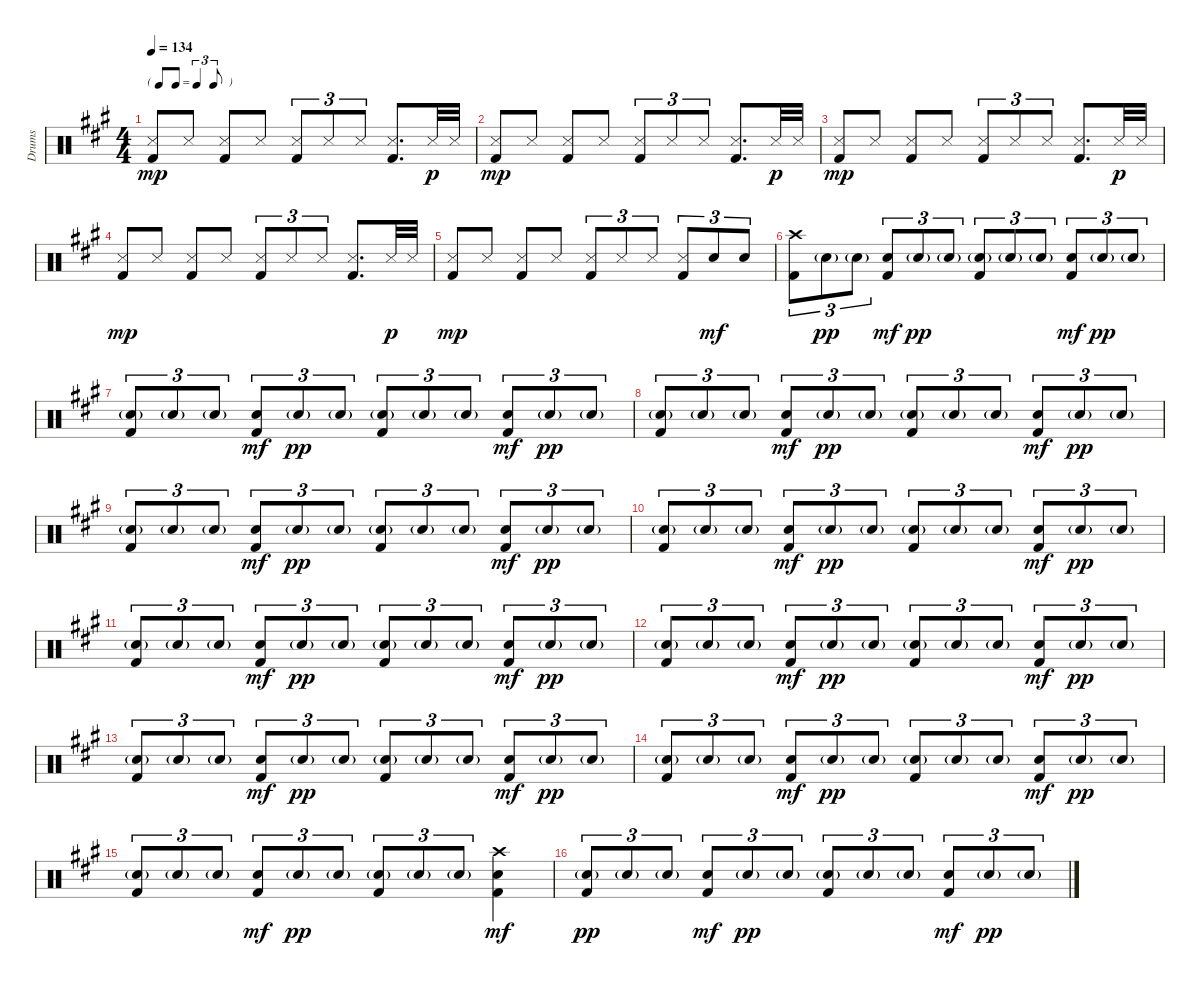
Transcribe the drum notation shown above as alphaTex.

\track ("Drums" "Drums") {instrument percussion}
\staff {score}
\articulation defaults
\ts (4 4)
\tf triplet8th
\tempo 134
\clef neutral
\ks f#minor
("Snare (side stick) 3" "Kick (hit) 2").8{dy mp} "Snare (side stick) 3".8 ("Snare (side stick) 3" "Kick (hit) 2").8 "Snare (side stick) 3".8 ("Snare (side stick) 3" "Kick (hit) 2").8{tu (3 2)} "Snare (side stick) 3".8{tu (3 2)} "Snare (side stick) 3".8{tu (3 2)} ("Snare (side stick) 3" "Kick (hit) 2").8{d} "Snare (side stick) 3".32{dy p} "Snare (side stick) 3".32 |
("Snare (side stick) 3" "Kick (hit) 2").8{dy mp} "Snare (side stick) 3".8 ("Snare (side stick) 3" "Kick (hit) 2").8 "Snare (side stick) 3".8 ("Snare (side stick) 3" "Kick (hit) 2").8{tu (3 2)} "Snare (side stick) 3".8{tu (3 2)} "Snare (side stick) 3".8{tu (3 2)} ("Snare (side stick) 3" "Kick (hit) 2").8{d} "Snare (side stick) 3".32{dy p} "Snare (side stick) 3".32 |
("Snare (side stick) 3" "Kick (hit) 2").8{dy mp} "Snare (side stick) 3".8 ("Snare (side stick) 3" "Kick (hit) 2").8 "Snare (side stick) 3".8 ("Snare (side stick) 3" "Kick (hit) 2").8{tu (3 2)} "Snare (side stick) 3".8{tu (3 2)} "Snare (side stick) 3".8{tu (3 2)} ("Snare (side stick) 3" "Kick (hit) 2").8{d} "Snare (side stick) 3".32{dy p} "Snare (side stick) 3".32 |
("Snare (side stick) 3" "Kick (hit) 2").8{dy mp} "Snare (side stick) 3".8 ("Snare (side stick) 3" "Kick (hit) 2").8 "Snare (side stick) 3".8 ("Snare (side stick) 3" "Kick (hit) 2").8{tu (3 2)} "Snare (side stick) 3".8{tu (3 2)} "Snare (side stick) 3".8{tu (3 2)} ("Snare (side stick) 3" "Kick (hit) 2").8{d} "Snare (side stick) 3".32{dy p} "Snare (side stick) 3".32 |
("Snare (side stick) 3" "Kick (hit) 2").8{dy mp} "Snare (side stick) 3".8 ("Snare (side stick) 3" "Kick (hit) 2").8 "Snare (side stick) 3".8 ("Snare (side stick) 3" "Kick (hit) 2").8{tu (3 2)} "Snare (side stick) 3".8{tu (3 2)} "Snare (side stick) 3".8{tu (3 2)} ("Snare (side stick) 3" "Kick (hit) 2").8{tu (3 2)} "Electric Snare (hit)".8{tu (3 2) dy mf} "Electric Snare (hit)".8{tu (3 2)} |
("Crash high (hit)" "Kick (hit) 2").8{tu (3 2)} "Snare (hit) 2"{g}.8{tu (3 2) dy pp} "Snare (hit) 2"{g}.8{tu (3 2)} ("Electric Snare (hit)" "Kick (hit) 2").8{tu (3 2) dy mf} "Snare (hit) 2"{g}.8{tu (3 2) dy pp} "Snare (hit) 2"{g}.8{tu (3 2)} ("Snare (hit) 2"{g} "Kick (hit) 2").8{tu (3 2)} "Snare (hit) 2"{g}.8{tu (3 2)} "Snare (hit) 2"{g}.8{tu (3 2)} ("Electric Snare (hit)" "Kick (hit) 2").8{tu (3 2) dy mf} "Snare (hit) 2"{g}.8{tu (3 2) dy pp} "Snare (hit) 2"{g}.8{tu (3 2)} |
("Snare (hit) 2"{g} "Kick (hit) 2").8{tu (3 2)} "Snare (hit) 2"{g}.8{tu (3 2)} "Snare (hit) 2"{g}.8{tu (3 2)} ("Electric Snare (hit)" "Kick (hit) 2").8{tu (3 2) dy mf} "Snare (hit) 2"{g}.8{tu (3 2) dy pp} "Snare (hit) 2"{g}.8{tu (3 2)} ("Snare (hit) 2"{g} "Kick (hit) 2").8{tu (3 2)} "Snare (hit) 2"{g}.8{tu (3 2)} "Snare (hit) 2"{g}.8{tu (3 2)} ("Electric Snare (hit)" "Kick (hit) 2").8{tu (3 2) dy mf} "Snare (hit) 2"{g}.8{tu (3 2) dy pp} "Snare (hit) 2"{g}.8{tu (3 2)} |
("Snare (hit) 2"{g} "Kick (hit) 2").8{tu (3 2)} "Snare (hit) 2"{g}.8{tu (3 2)} "Snare (hit) 2"{g}.8{tu (3 2)} ("Electric Snare (hit)" "Kick (hit) 2").8{tu (3 2) dy mf} "Snare (hit) 2"{g}.8{tu (3 2) dy pp} "Snare (hit) 2"{g}.8{tu (3 2)} ("Snare (hit) 2"{g} "Kick (hit) 2").8{tu (3 2)} "Snare (hit) 2"{g}.8{tu (3 2)} "Snare (hit) 2"{g}.8{tu (3 2)} ("Electric Snare (hit)" "Kick (hit) 2").8{tu (3 2) dy mf} "Snare (hit) 2"{g}.8{tu (3 2) dy pp} "Snare (hit) 2"{g}.8{tu (3 2)} |
("Snare (hit) 2"{g} "Kick (hit) 2").8{tu (3 2)} "Snare (hit) 2"{g}.8{tu (3 2)} "Snare (hit) 2"{g}.8{tu (3 2)} ("Electric Snare (hit)" "Kick (hit) 2").8{tu (3 2) dy mf} "Snare (hit) 2"{g}.8{tu (3 2) dy pp} "Snare (hit) 2"{g}.8{tu (3 2)} ("Snare (hit) 2"{g} "Kick (hit) 2").8{tu (3 2)} "Snare (hit) 2"{g}.8{tu (3 2)} "Snare (hit) 2"{g}.8{tu (3 2)} ("Electric Snare (hit)" "Kick (hit) 2").8{tu (3 2) dy mf} "Snare (hit) 2"{g}.8{tu (3 2) dy pp} "Snare (hit) 2"{g}.8{tu (3 2)} |
("Snare (hit) 2"{g} "Kick (hit) 2").8{tu (3 2)} "Snare (hit) 2"{g}.8{tu (3 2)} "Snare (hit) 2"{g}.8{tu (3 2)} ("Electric Snare (hit)" "Kick (hit) 2").8{tu (3 2) dy mf} "Snare (hit) 2"{g}.8{tu (3 2) dy pp} "Snare (hit) 2"{g}.8{tu (3 2)} ("Snare (hit) 2"{g} "Kick (hit) 2").8{tu (3 2)} "Snare (hit) 2"{g}.8{tu (3 2)} "Snare (hit) 2"{g}.8{tu (3 2)} ("Electric Snare (hit)" "Kick (hit) 2").8{tu (3 2) dy mf} "Snare (hit) 2"{g}.8{tu (3 2) dy pp} "Snare (hit) 2"{g}.8{tu (3 2)} |
("Snare (hit) 2"{g} "Kick (hit) 2").8{tu (3 2)} "Snare (hit) 2"{g}.8{tu (3 2)} "Snare (hit) 2"{g}.8{tu (3 2)} ("Electric Snare (hit)" "Kick (hit) 2").8{tu (3 2) dy mf} "Snare (hit) 2"{g}.8{tu (3 2) dy pp} "Snare (hit) 2"{g}.8{tu (3 2)} ("Snare (hit) 2"{g} "Kick (hit) 2").8{tu (3 2)} "Snare (hit) 2"{g}.8{tu (3 2)} "Snare (hit) 2"{g}.8{tu (3 2)} ("Electric Snare (hit)" "Kick (hit) 2").8{tu (3 2) dy mf} "Snare (hit) 2"{g}.8{tu (3 2) dy pp} "Snare (hit) 2"{g}.8{tu (3 2)} |
("Snare (hit) 2"{g} "Kick (hit) 2").8{tu (3 2)} "Snare (hit) 2"{g}.8{tu (3 2)} "Snare (hit) 2"{g}.8{tu (3 2)} ("Electric Snare (hit)" "Kick (hit) 2").8{tu (3 2) dy mf} "Snare (hit) 2"{g}.8{tu (3 2) dy pp} "Snare (hit) 2"{g}.8{tu (3 2)} ("Snare (hit) 2"{g} "Kick (hit) 2").8{tu (3 2)} "Snare (hit) 2"{g}.8{tu (3 2)} "Snare (hit) 2"{g}.8{tu (3 2)} ("Electric Snare (hit)" "Kick (hit) 2").8{tu (3 2) dy mf} "Snare (hit) 2"{g}.8{tu (3 2) dy pp} "Snare (hit) 2"{g}.8{tu (3 2)} |
("Snare (hit) 2"{g} "Kick (hit) 2").8{tu (3 2)} "Snare (hit) 2"{g}.8{tu (3 2)} "Snare (hit) 2"{g}.8{tu (3 2)} ("Electric Snare (hit)" "Kick (hit) 2").8{tu (3 2) dy mf} "Snare (hit) 2"{g}.8{tu (3 2) dy pp} "Snare (hit) 2"{g}.8{tu (3 2)} ("Snare (hit) 2"{g} "Kick (hit) 2").8{tu (3 2)} "Snare (hit) 2"{g}.8{tu (3 2)} "Snare (hit) 2"{g}.8{tu (3 2)} ("Electric Snare (hit)" "Kick (hit) 2").8{tu (3 2) dy mf} "Snare (hit) 2"{g}.8{tu (3 2) dy pp} "Snare (hit) 2"{g}.8{tu (3 2)} |
("Snare (hit) 2"{g} "Kick (hit) 2").8{tu (3 2)} "Snare (hit) 2"{g}.8{tu (3 2)} "Snare (hit) 2"{g}.8{tu (3 2)} ("Electric Snare (hit)" "Kick (hit) 2").8{tu (3 2) dy mf} "Snare (hit) 2"{g}.8{tu (3 2) dy pp} "Snare (hit) 2"{g}.8{tu (3 2)} ("Snare (hit) 2"{g} "Kick (hit) 2").8{tu (3 2)} "Snare (hit) 2"{g}.8{tu (3 2)} "Snare (hit) 2"{g}.8{tu (3 2)} ("Electric Snare (hit)" "Kick (hit) 2").8{tu (3 2) dy mf} "Snare (hit) 2"{g}.8{tu (3 2) dy pp} "Snare (hit) 2"{g}.8{tu (3 2)} |
("Snare (hit) 2"{g} "Kick (hit) 2").8{tu (3 2)} "Snare (hit) 2"{g}.8{tu (3 2)} "Snare (hit) 2"{g}.8{tu (3 2)} ("Electric Snare (hit)" "Kick (hit) 2").8{tu (3 2) dy mf} "Snare (hit) 2"{g}.8{tu (3 2) dy pp} "Snare (hit) 2"{g}.8{tu (3 2)} ("Snare (hit) 2"{g} "Kick (hit) 2").8{tu (3 2)} "Snare (hit) 2"{g}.8{tu (3 2)} "Snare (hit) 2"{g}.8{tu (3 2)} ("Crash high (hit)" "Electric Snare (hit)" "Kick (hit) 2").4{dy mf} |
("Snare (hit) 2"{g} "Kick (hit) 2").8{tu (3 2) dy pp} "Snare (hit) 2"{g}.8{tu (3 2)} "Snare (hit) 2"{g}.8{tu (3 2)} ("Electric Snare (hit)" "Kick (hit) 2").8{tu (3 2) dy mf} "Snare (hit) 2"{g}.8{tu (3 2) dy pp} "Snare (hit) 2"{g}.8{tu (3 2)} ("Snare (hit) 2"{g} "Kick (hit) 2").8{tu (3 2)} "Snare (hit) 2"{g}.8{tu (3 2)} "Snare (hit) 2"{g}.8{tu (3 2)} ("Electric Snare (hit)" "Kick (hit) 2").8{tu (3 2) dy mf} "Snare (hit) 2"{g}.8{tu (3 2) dy pp} "Snare (hit) 2"{g}.8{tu (3 2)}
